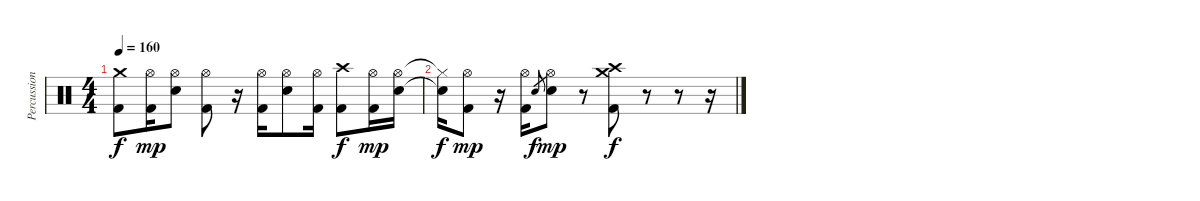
\track ("Percussions" "Percussion") {instrument percussion}
\staff {score}
\articulation defaults
\ts (4 4)
\tempo 160
\clef neutral
\ks c
("Crash medium (hit)" "Kick (hit) 2").8{dy f} ("Hi-Hat (open)" "Kick (hit) 2").16{dy mp} ("Hi-Hat (open)" "Electric Snare (hit)").8 ("Hi-Hat (open)" "Kick (hit) 2").8 r.16 ("Hi-Hat (open)" "Kick (hit) 2").16 ("Hi-Hat (open)" "Electric Snare (hit)").8 ("Hi-Hat (open)" "Kick (hit) 2").16 ("Crash high (hit)" "Kick (hit) 2").8{dy f} ("Hi-Hat (open)" "Kick (hit) 2").16{dy mp} ("Hi-Hat (open)" "Electric Snare (hit)").16 |
("Hi-Hat (closed)"{t} "Electric Snare (hit)"{t}).16{dy f} ("Hi-Hat (open)" "Kick (hit) 2").8{dy mp} r.16 ("Hi-Hat (open)" "Kick (hit) 2").16 "Electric Snare (hit)".8{gr dy f} ("Hi-Hat (open)" "Electric Snare (hit)").8{dy mp} r.8 ("Crash high (hit)" "Crash medium (hit)" "Kick (hit) 2").8{dy f} r.8 r.8 r.16
